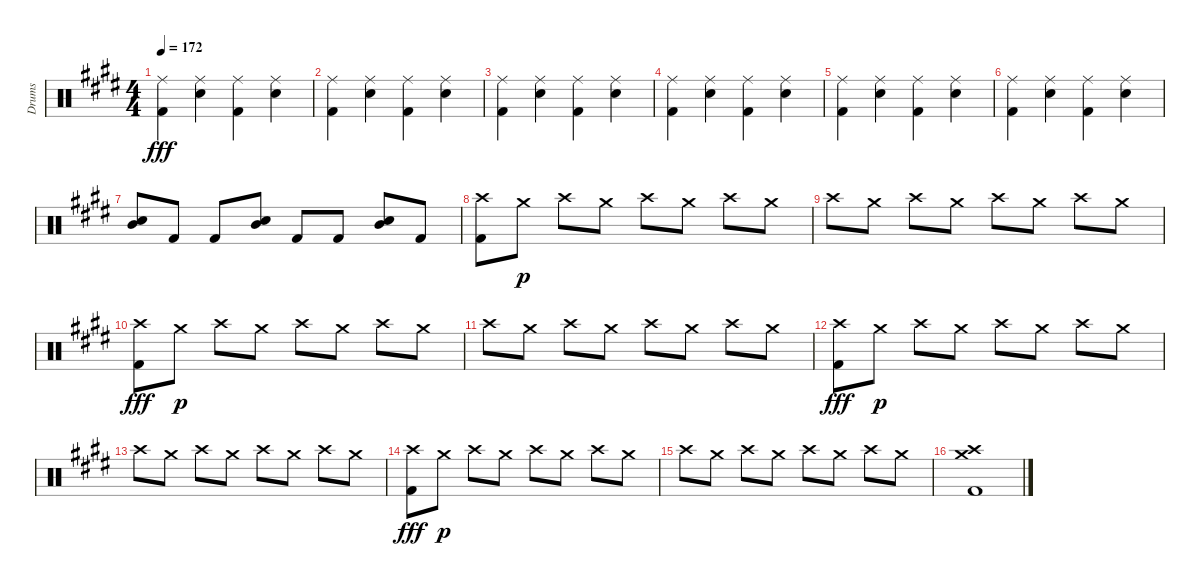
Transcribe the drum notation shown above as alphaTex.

\track ("Drums" "Drums") {instrument percussion}
\staff {score}
\articulation defaults
\ts (4 4)
\tempo 172
\clef neutral
\ks e
("Ride (middle)" "Kick (hit) 2").4{dy fff} ("Ride (middle)" "Electric Snare (hit)").4 ("Ride (middle)" "Kick (hit) 2").4 ("Ride (middle)" "Electric Snare (hit)").4 |
("Ride (middle)" "Kick (hit) 2").4 ("Ride (middle)" "Electric Snare (hit)").4 ("Ride (middle)" "Kick (hit) 2").4 ("Ride (middle)" "Electric Snare (hit)").4 |
("Ride (middle)" "Kick (hit) 2").4 ("Ride (middle)" "Electric Snare (hit)").4 ("Ride (middle)" "Kick (hit) 2").4 ("Ride (middle)" "Electric Snare (hit)").4 |
("Ride (middle)" "Kick (hit) 2").4 ("Ride (middle)" "Electric Snare (hit)").4 ("Ride (middle)" "Kick (hit) 2").4 ("Ride (middle)" "Electric Snare (hit)").4 |
("Ride (middle)" "Kick (hit) 2").4 ("Ride (middle)" "Electric Snare (hit)").4 ("Ride (middle)" "Kick (hit) 2").4 ("Ride (middle)" "Electric Snare (hit)").4 |
("Ride (middle)" "Kick (hit) 2").4 ("Ride (middle)" "Electric Snare (hit)").4 ("Ride (middle)" "Kick (hit) 2").4 ("Ride (middle)" "Electric Snare (hit)").4 |
("Electric Snare (hit)" "Mid Tom (hit)").8 "Kick (hit) 2".8 "Kick (hit) 2".8 ("Electric Snare (hit)" "Mid Tom (hit)").8 "Kick (hit) 2".8 "Kick (hit) 2".8 ("Electric Snare (hit)" "Mid Tom (hit)").8 "Kick (hit) 2".8 |
("Crash high (hit)" "Kick (hit) 2").8 "Crash medium (hit)".8{dy p} "Crash high (hit)".8 "Crash medium (hit)".8 "Crash high (hit)".8 "Crash medium (hit)".8 "Crash high (hit)".8 "Crash medium (hit)".8 |
"Crash high (hit)".8 "Crash medium (hit)".8 "Crash high (hit)".8 "Crash medium (hit)".8 "Crash high (hit)".8 "Crash medium (hit)".8 "Crash high (hit)".8 "Crash medium (hit)".8 |
("Crash high (hit)" "Kick (hit) 2").8{dy fff} "Crash medium (hit)".8{dy p} "Crash high (hit)".8 "Crash medium (hit)".8 "Crash high (hit)".8 "Crash medium (hit)".8 "Crash high (hit)".8 "Crash medium (hit)".8 |
"Crash high (hit)".8 "Crash medium (hit)".8 "Crash high (hit)".8 "Crash medium (hit)".8 "Crash high (hit)".8 "Crash medium (hit)".8 "Crash high (hit)".8 "Crash medium (hit)".8 |
("Crash high (hit)" "Kick (hit) 2").8{dy fff} "Crash medium (hit)".8{dy p} "Crash high (hit)".8 "Crash medium (hit)".8 "Crash high (hit)".8 "Crash medium (hit)".8 "Crash high (hit)".8 "Crash medium (hit)".8 |
"Crash high (hit)".8 "Crash medium (hit)".8 "Crash high (hit)".8 "Crash medium (hit)".8 "Crash high (hit)".8 "Crash medium (hit)".8 "Crash high (hit)".8 "Crash medium (hit)".8 |
("Crash high (hit)" "Kick (hit) 2").8{dy fff} "Crash medium (hit)".8{dy p} "Crash high (hit)".8 "Crash medium (hit)".8 "Crash high (hit)".8 "Crash medium (hit)".8 "Crash high (hit)".8 "Crash medium (hit)".8 |
"Crash high (hit)".8 "Crash medium (hit)".8 "Crash high (hit)".8 "Crash medium (hit)".8 "Crash high (hit)".8 "Crash medium (hit)".8 "Crash high (hit)".8 "Crash medium (hit)".8 |
("Kick (hit) 2" "Crash high (hit)" "Crash medium (hit)").1
